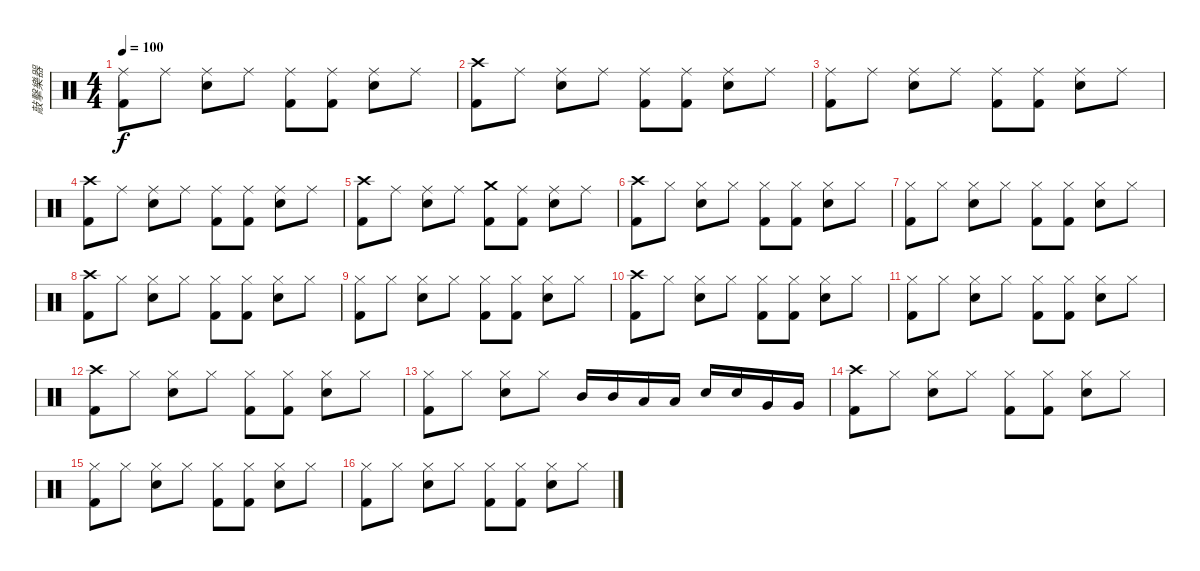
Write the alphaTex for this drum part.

\track ("敲擊樂器" "敲擊樂器") {instrument percussion}
\staff {score}
\articulation defaults
\ts (4 4)
\tempo 100
\clef neutral
\ks c
("Ride (middle)" "Kick (hit) 2").8{dy f} "Ride (middle)".8 ("Ride (middle)" "Snare (hit) 2").8 "Ride (middle)".8 ("Ride (middle)" "Kick (hit) 2").8 ("Ride (middle)" "Kick (hit) 2").8 ("Ride (middle)" "Snare (hit) 2").8 "Ride (middle)".8 |
("Crash high (hit)" "Kick (hit) 2").8 "Ride (middle)".8 ("Ride (middle)" "Snare (hit) 2").8 "Ride (middle)".8 ("Ride (middle)" "Kick (hit) 2").8 ("Ride (middle)" "Kick (hit) 2").8 ("Ride (middle)" "Snare (hit) 2").8 "Ride (middle)".8 |
("Ride (middle)" "Kick (hit) 2").8 "Ride (middle)".8 ("Ride (middle)" "Snare (hit) 2").8 "Ride (middle)".8 ("Ride (middle)" "Kick (hit) 2").8 ("Ride (middle)" "Kick (hit) 2").8 ("Ride (middle)" "Snare (hit) 2").8 "Ride (middle)".8 |
("Crash high (hit)" "Kick (hit) 2").8 "Ride (middle)".8 ("Ride (middle)" "Snare (hit) 2").8 "Ride (middle)".8 ("Ride (middle)" "Kick (hit) 2").8 ("Ride (middle)" "Kick (hit) 2").8 ("Ride (middle)" "Snare (hit) 2").8 "Ride (middle)".8 |
("Crash high (hit)" "Kick (hit) 2").8 "Ride (middle)".8 ("Ride (middle)" "Snare (hit) 2").8 "Ride (middle)".8 ("Crash medium (hit)" "Kick (hit) 2").8 ("Ride (middle)" "Kick (hit) 2").8 ("Ride (middle)" "Snare (hit) 2").8 "Ride (middle)".8 |
("Crash high (hit)" "Kick (hit) 2").8 "Hi-Hat (closed)".8 ("Hi-Hat (closed)" "Snare (hit) 2").8 "Hi-Hat (closed)".8 ("Hi-Hat (closed)" "Kick (hit) 2").8 ("Hi-Hat (closed)" "Kick (hit) 2").8 ("Hi-Hat (closed)" "Snare (hit) 2").8 "Hi-Hat (closed)".8 |
("Hi-Hat (closed)" "Kick (hit) 2").8 "Hi-Hat (closed)".8 ("Hi-Hat (closed)" "Snare (hit) 2").8 "Hi-Hat (closed)".8 ("Hi-Hat (closed)" "Kick (hit) 2").8 ("Hi-Hat (closed)" "Kick (hit) 2").8 ("Hi-Hat (closed)" "Snare (hit) 2").8 "Hi-Hat (closed)".8 |
("Crash high (hit)" "Kick (hit) 2").8 "Hi-Hat (closed)".8 ("Hi-Hat (closed)" "Snare (hit) 2").8 "Hi-Hat (closed)".8 ("Hi-Hat (closed)" "Kick (hit) 2").8 ("Hi-Hat (closed)" "Kick (hit) 2").8 ("Hi-Hat (closed)" "Snare (hit) 2").8 "Hi-Hat (closed)".8 |
("Hi-Hat (closed)" "Kick (hit) 2").8 "Hi-Hat (closed)".8 ("Hi-Hat (closed)" "Snare (hit) 2").8 "Hi-Hat (closed)".8 ("Hi-Hat (closed)" "Kick (hit) 2").8 ("Hi-Hat (closed)" "Kick (hit) 2").8 ("Hi-Hat (closed)" "Snare (hit) 2").8 "Hi-Hat (closed)".8 |
("Crash high (hit)" "Kick (hit) 2").8 "Hi-Hat (closed)".8 ("Hi-Hat (closed)" "Snare (hit) 2").8 "Hi-Hat (closed)".8 ("Hi-Hat (closed)" "Kick (hit) 2").8 ("Hi-Hat (closed)" "Kick (hit) 2").8 ("Hi-Hat (closed)" "Snare (hit) 2").8 "Hi-Hat (closed)".8 |
("Hi-Hat (closed)" "Kick (hit) 2").8 "Hi-Hat (closed)".8 ("Hi-Hat (closed)" "Snare (hit) 2").8 "Hi-Hat (closed)".8 ("Hi-Hat (closed)" "Kick (hit) 2").8 ("Hi-Hat (closed)" "Kick (hit) 2").8 ("Hi-Hat (closed)" "Snare (hit) 2").8 "Hi-Hat (closed)".8 |
("Crash high (hit)" "Kick (hit) 2").8 "Hi-Hat (closed)".8 ("Hi-Hat (closed)" "Snare (hit) 2").8 "Hi-Hat (closed)".8 ("Hi-Hat (closed)" "Kick (hit) 2").8 ("Hi-Hat (closed)" "Kick (hit) 2").8 ("Hi-Hat (closed)" "Snare (hit) 2").8 "Hi-Hat (closed)".8 |
("Hi-Hat (closed)" "Kick (hit) 2").8 "Hi-Hat (closed)".8 ("Hi-Hat (closed)" "Snare (hit) 2").8 "Hi-Hat (closed)".8 "Mid Tom (hit)".16 "Mid Tom (hit)".16 "Low Tom (hit)".16 "Low Tom (hit)".16 "Snare (hit) 2".16 "Snare (hit) 2".16 "Very Low Tom (hit)".16 "Very Low Tom (hit)".16 |
("Crash high (hit)" "Kick (hit) 2").8 "Hi-Hat (closed)".8 ("Hi-Hat (closed)" "Snare (hit) 2").8 "Hi-Hat (closed)".8 ("Hi-Hat (closed)" "Kick (hit) 2").8 ("Hi-Hat (closed)" "Kick (hit) 2").8 ("Hi-Hat (closed)" "Snare (hit) 2").8 "Hi-Hat (closed)".8 |
("Hi-Hat (closed)" "Kick (hit) 2").8 "Hi-Hat (closed)".8 ("Hi-Hat (closed)" "Snare (hit) 2").8 "Hi-Hat (closed)".8 ("Hi-Hat (closed)" "Kick (hit) 2").8 ("Hi-Hat (closed)" "Kick (hit) 2").8 ("Hi-Hat (closed)" "Snare (hit) 2").8 "Hi-Hat (closed)".8 |
("Hi-Hat (closed)" "Kick (hit) 2").8 "Hi-Hat (closed)".8 ("Hi-Hat (closed)" "Snare (hit) 2").8 "Hi-Hat (closed)".8 ("Hi-Hat (closed)" "Kick (hit) 2").8 ("Hi-Hat (closed)" "Kick (hit) 2").8 ("Hi-Hat (closed)" "Snare (hit) 2").8 "Hi-Hat (closed)".8
